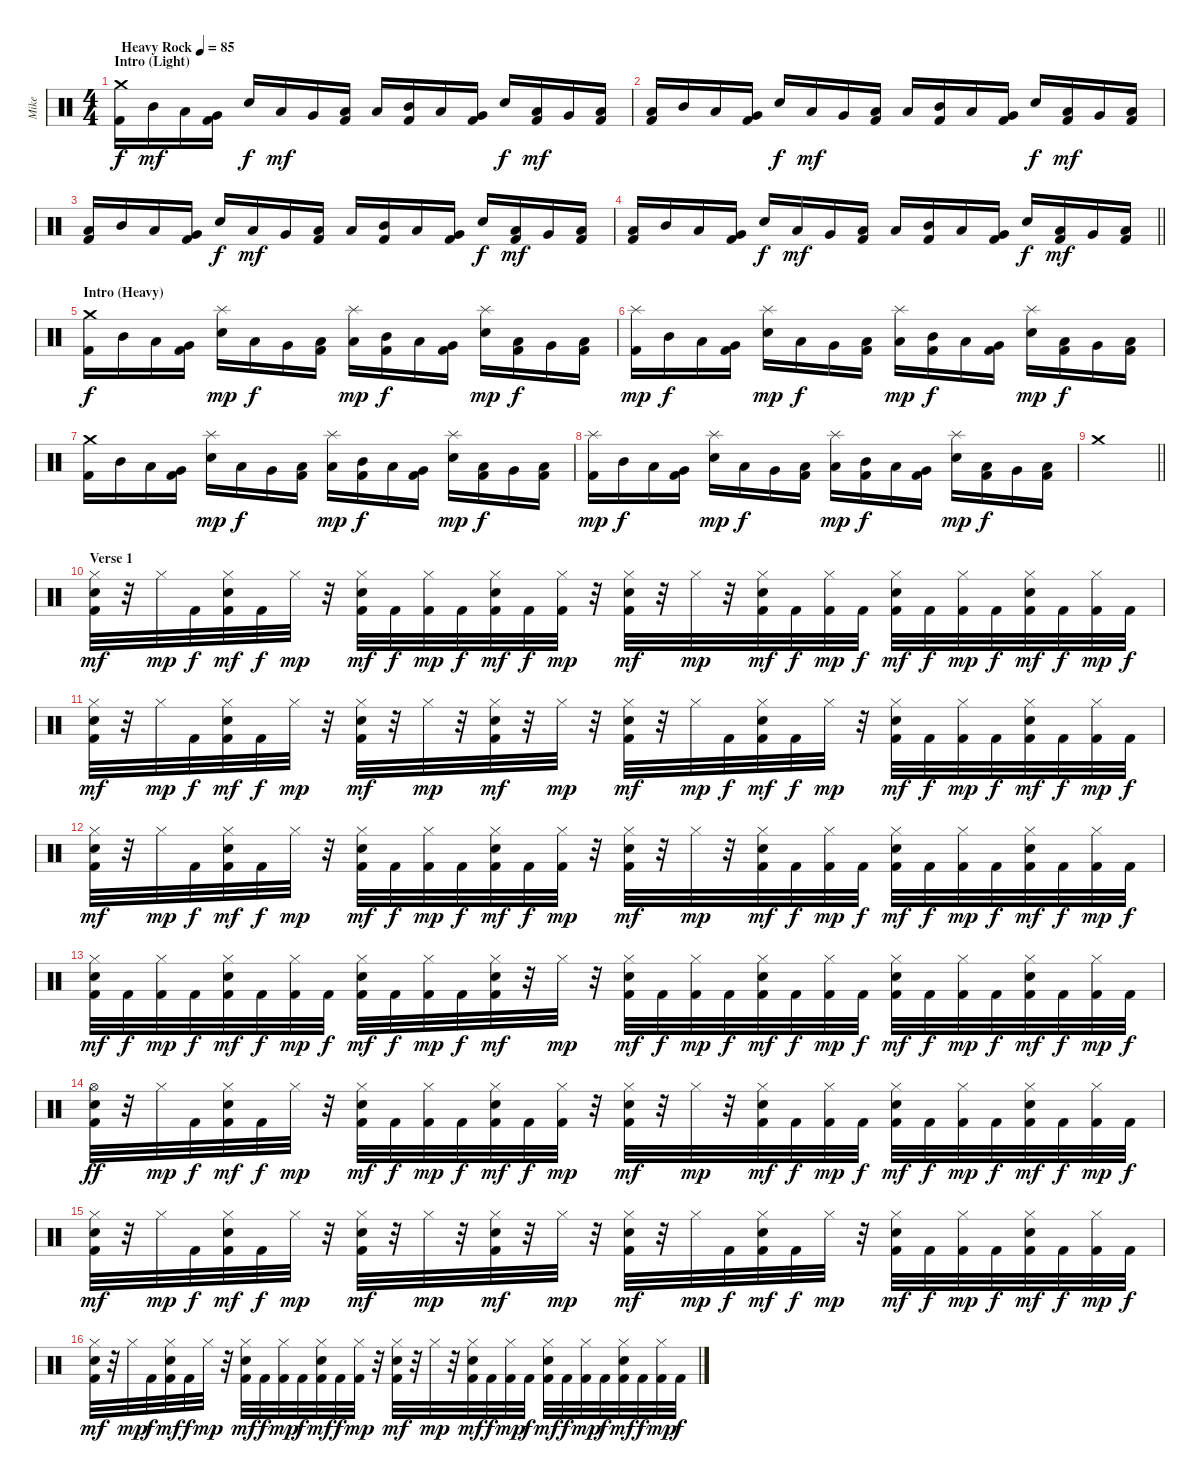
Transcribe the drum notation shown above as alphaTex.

\track ("Mike" "Mike") {instrument percussion}
\staff {score}
\articulation defaults
\ts (4 4)
\section ("" "Intro (Light)")
\tempo (85 "Heavy Rock")
\clef neutral
\ks c
("Crash medium (hit)" "Kick (hit) 2").16{dy f} "Mid Tom (hit)".16{dy mf} "Low Tom (hit)".16 ("Very Low Tom (hit)" "Kick (hit) 2").16 "Snare (hit) 2".16{dy f} "Low Tom (hit)".16{dy mf} "Very Low Tom (hit)".16 ("Low Floor Tom (hit)" "Kick (hit) 2").16 "Low Tom (hit)".16 ("Mid Tom (hit)" "Kick (hit) 2").16 "Low Tom (hit)".16 ("Very Low Tom (hit)" "Kick (hit) 2").16 "Snare (hit) 2".16{dy f} ("Low Tom (hit)" "Kick (hit) 2").16{dy mf} "Very Low Tom (hit)".16 ("Low Floor Tom (hit)" "Kick (hit) 2").16 |
("Low Tom (hit)" "Kick (hit) 2").16 "Mid Tom (hit)".16 "Low Tom (hit)".16 ("Very Low Tom (hit)" "Kick (hit) 2").16 "Snare (hit) 2".16{dy f} "Low Tom (hit)".16{dy mf} "Very Low Tom (hit)".16 ("Low Floor Tom (hit)" "Kick (hit) 2").16 "Low Tom (hit)".16 ("Mid Tom (hit)" "Kick (hit) 2").16 "Low Tom (hit)".16 ("Very Low Tom (hit)" "Kick (hit) 2").16 "Snare (hit) 2".16{dy f} ("Low Tom (hit)" "Kick (hit) 2").16{dy mf} "Very Low Tom (hit)".16 ("Low Floor Tom (hit)" "Kick (hit) 2").16 |
("Low Tom (hit)" "Kick (hit) 2").16 "Mid Tom (hit)".16 "Low Tom (hit)".16 ("Very Low Tom (hit)" "Kick (hit) 2").16 "Snare (hit) 2".16{dy f} "Low Tom (hit)".16{dy mf} "Very Low Tom (hit)".16 ("Low Floor Tom (hit)" "Kick (hit) 2").16 "Low Tom (hit)".16 ("Mid Tom (hit)" "Kick (hit) 2").16 "Low Tom (hit)".16 ("Very Low Tom (hit)" "Kick (hit) 2").16 "Snare (hit) 2".16{dy f} ("Low Tom (hit)" "Kick (hit) 2").16{dy mf} "Very Low Tom (hit)".16 ("Low Floor Tom (hit)" "Kick (hit) 2").16 |
\barLineRight lightlight
("Low Tom (hit)" "Kick (hit) 2").16 "Mid Tom (hit)".16 "Low Tom (hit)".16 ("Very Low Tom (hit)" "Kick (hit) 2").16 "Snare (hit) 2".16{dy f} "Low Tom (hit)".16{dy mf} "Very Low Tom (hit)".16 ("Low Floor Tom (hit)" "Kick (hit) 2").16 "Low Tom (hit)".16 ("Mid Tom (hit)" "Kick (hit) 2").16 "Low Tom (hit)".16 ("Very Low Tom (hit)" "Kick (hit) 2").16 "Snare (hit) 2".16{dy f} ("Low Tom (hit)" "Kick (hit) 2").16{dy mf} "Very Low Tom (hit)".16 ("Low Floor Tom (hit)" "Kick (hit) 2").16 |
\section ("" "Intro (Heavy)")
("Crash medium (hit)" "Kick (hit) 2").16{dy f} "Mid Tom (hit)".16 "Low Tom (hit)".16 ("Very Low Tom (hit)" "Kick (hit) 2").16 ("Splash (hit)" "Snare (hit) 2").16{dy mp} "Low Tom (hit)".16{dy f} "Very Low Tom (hit)".16 ("Low Floor Tom (hit)" "Kick (hit) 2").16 ("Splash (hit)" "Low Tom (hit)").16{dy mp} ("Mid Tom (hit)" "Kick (hit) 2").16{dy f} "Low Tom (hit)".16 ("Very Low Tom (hit)" "Kick (hit) 2").16 ("Splash (hit)" "Snare (hit) 2").16{dy mp} ("Low Tom (hit)" "Kick (hit) 2").16{dy f} "Very Low Tom (hit)".16 ("Low Floor Tom (hit)" "Kick (hit) 2").16 |
("Splash (hit)" "Kick (hit) 2").16{dy mp} "Mid Tom (hit)".16{dy f} "Low Tom (hit)".16 ("Very Low Tom (hit)" "Kick (hit) 2").16 ("Splash (hit)" "Snare (hit) 2").16{dy mp} "Low Tom (hit)".16{dy f} "Very Low Tom (hit)".16 ("Low Floor Tom (hit)" "Kick (hit) 2").16 ("Splash (hit)" "Low Tom (hit)").16{dy mp} ("Mid Tom (hit)" "Kick (hit) 2").16{dy f} "Low Tom (hit)".16 ("Very Low Tom (hit)" "Kick (hit) 2").16 ("Splash (hit)" "Snare (hit) 2").16{dy mp} ("Low Tom (hit)" "Kick (hit) 2").16{dy f} "Very Low Tom (hit)".16 ("Low Floor Tom (hit)" "Kick (hit) 2").16 |
("Crash medium (hit)" "Kick (hit) 2").16 "Mid Tom (hit)".16 "Low Tom (hit)".16 ("Very Low Tom (hit)" "Kick (hit) 2").16 ("Splash (hit)" "Snare (hit) 2").16{dy mp} "Low Tom (hit)".16{dy f} "Very Low Tom (hit)".16 ("Low Floor Tom (hit)" "Kick (hit) 2").16 ("Splash (hit)" "Low Tom (hit)").16{dy mp} ("Mid Tom (hit)" "Kick (hit) 2").16{dy f} "Low Tom (hit)".16 ("Very Low Tom (hit)" "Kick (hit) 2").16 ("Splash (hit)" "Snare (hit) 2").16{dy mp} ("Low Tom (hit)" "Kick (hit) 2").16{dy f} "Very Low Tom (hit)".16 ("Low Floor Tom (hit)" "Kick (hit) 2").16 |
("Splash (hit)" "Kick (hit) 2").16{dy mp} "Mid Tom (hit)".16{dy f} "Low Tom (hit)".16 ("Very Low Tom (hit)" "Kick (hit) 2").16 ("Splash (hit)" "Snare (hit) 2").16{dy mp} "Low Tom (hit)".16{dy f} "Very Low Tom (hit)".16 ("Low Floor Tom (hit)" "Kick (hit) 2").16 ("Splash (hit)" "Low Tom (hit)").16{dy mp} ("Mid Tom (hit)" "Kick (hit) 2").16{dy f} "Low Tom (hit)".16 ("Very Low Tom (hit)" "Kick (hit) 2").16 ("Splash (hit)" "Snare (hit) 2").16{dy mp} ("Low Tom (hit)" "Kick (hit) 2").16{dy f} "Very Low Tom (hit)".16 ("Low Floor Tom (hit)" "Kick (hit) 2").16 |
\barLineRight lightlight "Crash medium (hit)".1
|
\section ("" "Verse 1")
("Hi-Hat (closed)" "Snare (hit) 2" "Kick (hit) 2").32{dy mf} r.32 "Hi-Hat (closed)".32{dy mp} "Kick (hit) 2".32{dy f} ("Hi-Hat (closed)" "Snare (hit) 2" "Kick (hit) 2").32{dy mf} "Kick (hit) 2".32{dy f} "Hi-Hat (closed)".32{dy mp} r.32 ("Hi-Hat (closed)" "Snare (hit) 2" "Kick (hit) 2").32{dy mf} "Kick (hit) 2".32{dy f} ("Hi-Hat (closed)" "Kick (hit) 2").32{dy mp} "Kick (hit) 2".32{dy f} ("Hi-Hat (closed)" "Snare (hit) 2" "Kick (hit) 2").32{dy mf} "Kick (hit) 2".32{dy f} ("Hi-Hat (closed)" "Kick (hit) 2").32{dy mp} r.32 ("Hi-Hat (closed)" "Snare (hit) 2" "Kick (hit) 2").32{dy mf} r.32 "Hi-Hat (closed)".32{dy mp} r.32 ("Hi-Hat (closed)" "Snare (hit) 2" "Kick (hit) 2").32{dy mf} "Kick (hit) 2".32{dy f} ("Hi-Hat (closed)" "Kick (hit) 2").32{dy mp} "Kick (hit) 2".32{dy f} ("Hi-Hat (closed)" "Snare (hit) 2" "Kick (hit) 2").32{dy mf} "Kick (hit) 2".32{dy f} ("Hi-Hat (closed)" "Kick (hit) 2").32{dy mp} "Kick (hit) 2".32{dy f} ("Hi-Hat (closed)" "Snare (hit) 2" "Kick (hit) 2").32{dy mf} "Kick (hit) 2".32{dy f} ("Hi-Hat (closed)" "Kick (hit) 2").32{dy mp} "Kick (hit) 2".32{dy f} |
("Hi-Hat (closed)" "Snare (hit) 2" "Kick (hit) 2").32{dy mf} r.32 "Hi-Hat (closed)".32{dy mp} "Kick (hit) 2".32{dy f} ("Hi-Hat (closed)" "Snare (hit) 2" "Kick (hit) 2").32{dy mf} "Kick (hit) 2".32{dy f} "Hi-Hat (closed)".32{dy mp} r.32 ("Hi-Hat (closed)" "Snare (hit) 2" "Kick (hit) 2").32{dy mf} r.32 "Hi-Hat (closed)".32{dy mp} r.32 ("Hi-Hat (closed)" "Snare (hit) 2" "Kick (hit) 2").32{dy mf} r.32 "Hi-Hat (closed)".32{dy mp} r.32 ("Hi-Hat (closed)" "Snare (hit) 2" "Kick (hit) 2").32{dy mf} r.32 "Hi-Hat (closed)".32{dy mp} "Kick (hit) 2".32{dy f} ("Hi-Hat (closed)" "Snare (hit) 2" "Kick (hit) 2").32{dy mf} "Kick (hit) 2".32{dy f} "Hi-Hat (closed)".32{dy mp} r.32 ("Hi-Hat (closed)" "Snare (hit) 2" "Kick (hit) 2").32{dy mf} "Kick (hit) 2".32{dy f} ("Hi-Hat (closed)" "Kick (hit) 2").32{dy mp} "Kick (hit) 2".32{dy f} ("Hi-Hat (closed)" "Snare (hit) 2" "Kick (hit) 2").32{dy mf} "Kick (hit) 2".32{dy f} ("Hi-Hat (closed)" "Kick (hit) 2").32{dy mp} "Kick (hit) 2".32{dy f} |
("Hi-Hat (closed)" "Snare (hit) 2" "Kick (hit) 2").32{dy mf} r.32 "Hi-Hat (closed)".32{dy mp} "Kick (hit) 2".32{dy f} ("Hi-Hat (closed)" "Snare (hit) 2" "Kick (hit) 2").32{dy mf} "Kick (hit) 2".32{dy f} "Hi-Hat (closed)".32{dy mp} r.32 ("Hi-Hat (closed)" "Snare (hit) 2" "Kick (hit) 2").32{dy mf} "Kick (hit) 2".32{dy f} ("Hi-Hat (closed)" "Kick (hit) 2").32{dy mp} "Kick (hit) 2".32{dy f} ("Hi-Hat (closed)" "Snare (hit) 2" "Kick (hit) 2").32{dy mf} "Kick (hit) 2".32{dy f} ("Hi-Hat (closed)" "Kick (hit) 2").32{dy mp} r.32 ("Hi-Hat (closed)" "Snare (hit) 2" "Kick (hit) 2").32{dy mf} r.32 "Hi-Hat (closed)".32{dy mp} r.32 ("Hi-Hat (closed)" "Snare (hit) 2" "Kick (hit) 2").32{dy mf} "Kick (hit) 2".32{dy f} ("Hi-Hat (closed)" "Kick (hit) 2").32{dy mp} "Kick (hit) 2".32{dy f} ("Hi-Hat (closed)" "Snare (hit) 2" "Kick (hit) 2").32{dy mf} "Kick (hit) 2".32{dy f} ("Hi-Hat (closed)" "Kick (hit) 2").32{dy mp} "Kick (hit) 2".32{dy f} ("Hi-Hat (closed)" "Snare (hit) 2" "Kick (hit) 2").32{dy mf} "Kick (hit) 2".32{dy f} ("Hi-Hat (closed)" "Kick (hit) 2").32{dy mp} "Kick (hit) 2".32{dy f} |
("Hi-Hat (closed)" "Snare (hit) 2" "Kick (hit) 2").32{dy mf} "Kick (hit) 2".32{dy f} ("Hi-Hat (closed)" "Kick (hit) 2").32{dy mp} "Kick (hit) 2".32{dy f} ("Hi-Hat (closed)" "Snare (hit) 2" "Kick (hit) 2").32{dy mf} "Kick (hit) 2".32{dy f} ("Hi-Hat (closed)" "Kick (hit) 2").32{dy mp} "Kick (hit) 2".32{dy f} ("Hi-Hat (closed)" "Snare (hit) 2" "Kick (hit) 2").32{dy mf} "Kick (hit) 2".32{dy f} ("Hi-Hat (closed)" "Kick (hit) 2").32{dy mp} "Kick (hit) 2".32{dy f} ("Hi-Hat (closed)" "Snare (hit) 2" "Kick (hit) 2").32{dy mf} r.32 "Hi-Hat (closed)".32{dy mp} r.32 ("Hi-Hat (closed)" "Snare (hit) 2" "Kick (hit) 2").32{dy mf} "Kick (hit) 2".32{dy f} ("Hi-Hat (closed)" "Kick (hit) 2").32{dy mp} "Kick (hit) 2".32{dy f} ("Hi-Hat (closed)" "Snare (hit) 2" "Kick (hit) 2").32{dy mf} "Kick (hit) 2".32{dy f} ("Hi-Hat (closed)" "Kick (hit) 2").32{dy mp} "Kick (hit) 2".32{dy f} ("Hi-Hat (closed)" "Snare (hit) 2" "Kick (hit) 2").32{dy mf} "Kick (hit) 2".32{dy f} ("Hi-Hat (closed)" "Kick (hit) 2").32{dy mp} "Kick (hit) 2".32{dy f} ("Hi-Hat (closed)" "Snare (hit) 2" "Kick (hit) 2").32{dy mf} "Kick (hit) 2".32{dy f} ("Hi-Hat (closed)" "Kick (hit) 2").32{dy mp} "Kick (hit) 2".32{dy f} |
("Hi-Hat (open)" "Snare (hit) 2" "Kick (hit) 2").32{dy ff} r.32 "Hi-Hat (closed)".32{dy mp} "Kick (hit) 2".32{dy f} ("Hi-Hat (closed)" "Snare (hit) 2" "Kick (hit) 2").32{dy mf} "Kick (hit) 2".32{dy f} "Hi-Hat (closed)".32{dy mp} r.32 ("Hi-Hat (closed)" "Snare (hit) 2" "Kick (hit) 2").32{dy mf} "Kick (hit) 2".32{dy f} ("Hi-Hat (closed)" "Kick (hit) 2").32{dy mp} "Kick (hit) 2".32{dy f} ("Hi-Hat (closed)" "Snare (hit) 2" "Kick (hit) 2").32{dy mf} "Kick (hit) 2".32{dy f} ("Hi-Hat (closed)" "Kick (hit) 2").32{dy mp} r.32 ("Hi-Hat (closed)" "Snare (hit) 2" "Kick (hit) 2").32{dy mf} r.32 "Hi-Hat (closed)".32{dy mp} r.32 ("Hi-Hat (closed)" "Snare (hit) 2" "Kick (hit) 2").32{dy mf} "Kick (hit) 2".32{dy f} ("Hi-Hat (closed)" "Kick (hit) 2").32{dy mp} "Kick (hit) 2".32{dy f} ("Hi-Hat (closed)" "Snare (hit) 2" "Kick (hit) 2").32{dy mf} "Kick (hit) 2".32{dy f} ("Hi-Hat (closed)" "Kick (hit) 2").32{dy mp} "Kick (hit) 2".32{dy f} ("Hi-Hat (closed)" "Snare (hit) 2" "Kick (hit) 2").32{dy mf} "Kick (hit) 2".32{dy f} ("Hi-Hat (closed)" "Kick (hit) 2").32{dy mp} "Kick (hit) 2".32{dy f} |
("Hi-Hat (closed)" "Snare (hit) 2" "Kick (hit) 2").32{dy mf} r.32 "Hi-Hat (closed)".32{dy mp} "Kick (hit) 2".32{dy f} ("Hi-Hat (closed)" "Snare (hit) 2" "Kick (hit) 2").32{dy mf} "Kick (hit) 2".32{dy f} "Hi-Hat (closed)".32{dy mp} r.32 ("Hi-Hat (closed)" "Snare (hit) 2" "Kick (hit) 2").32{dy mf} r.32 "Hi-Hat (closed)".32{dy mp} r.32 ("Hi-Hat (closed)" "Snare (hit) 2" "Kick (hit) 2").32{dy mf} r.32 "Hi-Hat (closed)".32{dy mp} r.32 ("Hi-Hat (closed)" "Snare (hit) 2" "Kick (hit) 2").32{dy mf} r.32 "Hi-Hat (closed)".32{dy mp} "Kick (hit) 2".32{dy f} ("Hi-Hat (closed)" "Snare (hit) 2" "Kick (hit) 2").32{dy mf} "Kick (hit) 2".32{dy f} "Hi-Hat (closed)".32{dy mp} r.32 ("Hi-Hat (closed)" "Snare (hit) 2" "Kick (hit) 2").32{dy mf} "Kick (hit) 2".32{dy f} ("Hi-Hat (closed)" "Kick (hit) 2").32{dy mp} "Kick (hit) 2".32{dy f} ("Hi-Hat (closed)" "Snare (hit) 2" "Kick (hit) 2").32{dy mf} "Kick (hit) 2".32{dy f} ("Hi-Hat (closed)" "Kick (hit) 2").32{dy mp} "Kick (hit) 2".32{dy f} |
("Hi-Hat (closed)" "Snare (hit) 2" "Kick (hit) 2").32{dy mf} r.32 "Hi-Hat (closed)".32{dy mp} "Kick (hit) 2".32{dy f} ("Hi-Hat (closed)" "Snare (hit) 2" "Kick (hit) 2").32{dy mf} "Kick (hit) 2".32{dy f} "Hi-Hat (closed)".32{dy mp} r.32 ("Hi-Hat (closed)" "Snare (hit) 2" "Kick (hit) 2").32{dy mf} "Kick (hit) 2".32{dy f} ("Hi-Hat (closed)" "Kick (hit) 2").32{dy mp} "Kick (hit) 2".32{dy f} ("Hi-Hat (closed)" "Snare (hit) 2" "Kick (hit) 2").32{dy mf} "Kick (hit) 2".32{dy f} ("Hi-Hat (closed)" "Kick (hit) 2").32{dy mp} r.32 ("Hi-Hat (closed)" "Snare (hit) 2" "Kick (hit) 2").32{dy mf} r.32 "Hi-Hat (closed)".32{dy mp} r.32 ("Hi-Hat (closed)" "Snare (hit) 2" "Kick (hit) 2").32{dy mf} "Kick (hit) 2".32{dy f} ("Hi-Hat (closed)" "Kick (hit) 2").32{dy mp} "Kick (hit) 2".32{dy f} ("Hi-Hat (closed)" "Snare (hit) 2" "Kick (hit) 2").32{dy mf} "Kick (hit) 2".32{dy f} ("Hi-Hat (closed)" "Kick (hit) 2").32{dy mp} "Kick (hit) 2".32{dy f} ("Hi-Hat (closed)" "Snare (hit) 2" "Kick (hit) 2").32{dy mf} "Kick (hit) 2".32{dy f} ("Hi-Hat (closed)" "Kick (hit) 2").32{dy mp} "Kick (hit) 2".32{dy f}
